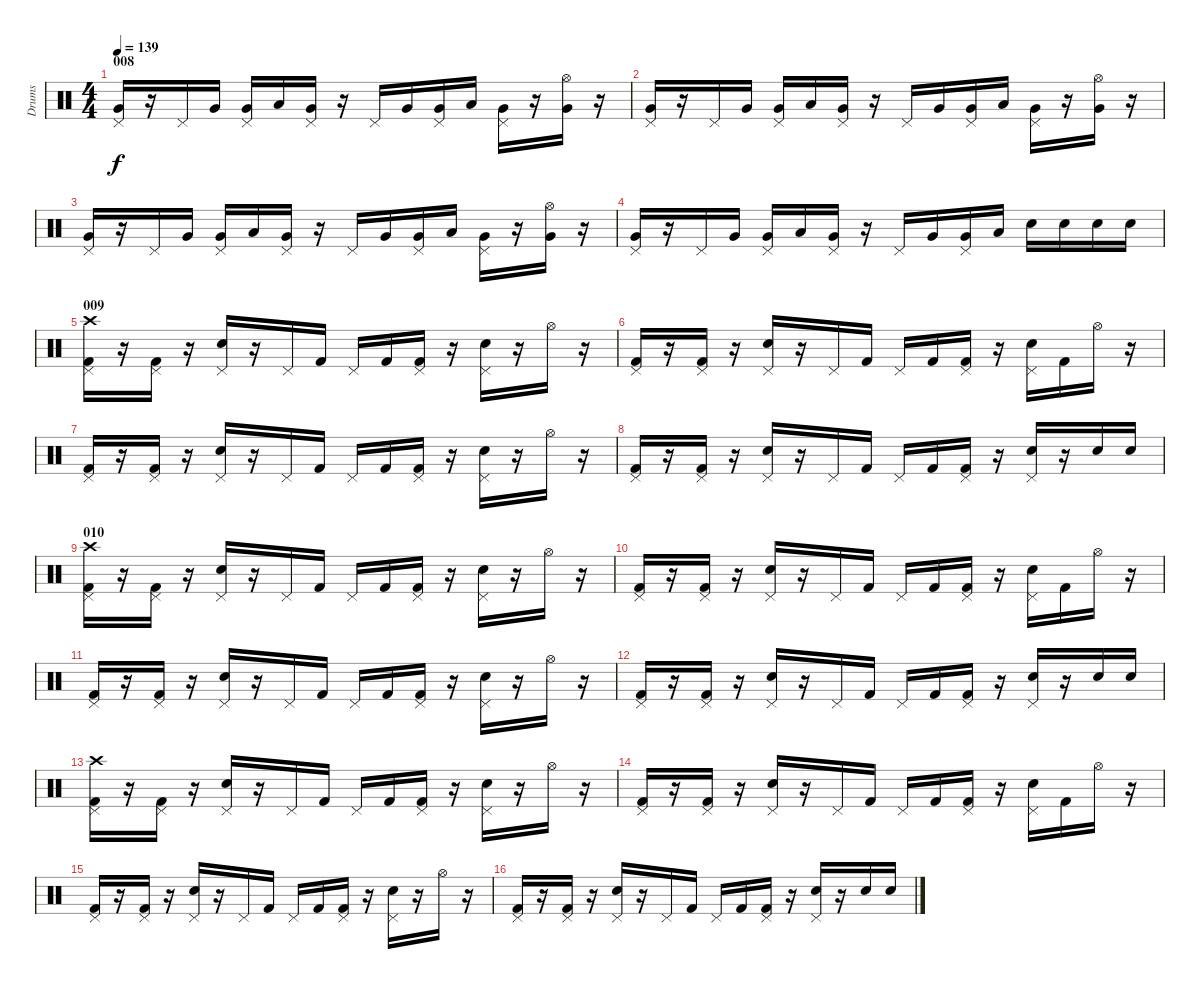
\track ("Drums" "Drums") {instrument percussion}
\staff {score}
\articulation defaults
\ts (4 4)
\section ("" "008")
\tempo 139
\clef neutral
\ks c
("Very Low Tom (hit)" "Pedal Hi-Hat (hit)").16{dy f} r.16 "Pedal Hi-Hat (hit)".16 "Very Low Tom (hit)".16 ("Very Low Tom (hit)" "Pedal Hi-Hat (hit)").16 "Low Floor Tom (hit)".16 ("Very Low Tom (hit)" "Pedal Hi-Hat (hit)").16 r.16 "Pedal Hi-Hat (hit)".16 "Very Low Tom (hit)".16 ("Very Low Tom (hit)" "Pedal Hi-Hat (hit)").16 "Low Floor Tom (hit)".16 ("Very Low Tom (hit)" "Pedal Hi-Hat (hit)").16 r.16 ("Very Low Tom (hit)" "Hi-Hat (open)").16 r.16 |
("Very Low Tom (hit)" "Pedal Hi-Hat (hit)").16 r.16 "Pedal Hi-Hat (hit)".16 "Very Low Tom (hit)".16 ("Very Low Tom (hit)" "Pedal Hi-Hat (hit)").16 "Low Floor Tom (hit)".16 ("Very Low Tom (hit)" "Pedal Hi-Hat (hit)").16 r.16 "Pedal Hi-Hat (hit)".16 "Very Low Tom (hit)".16 ("Very Low Tom (hit)" "Pedal Hi-Hat (hit)").16 "Low Floor Tom (hit)".16 ("Very Low Tom (hit)" "Pedal Hi-Hat (hit)").16 r.16 ("Very Low Tom (hit)" "Hi-Hat (open)").16 r.16 |
("Very Low Tom (hit)" "Pedal Hi-Hat (hit)").16 r.16 "Pedal Hi-Hat (hit)".16 "Very Low Tom (hit)".16 ("Very Low Tom (hit)" "Pedal Hi-Hat (hit)").16 "Low Floor Tom (hit)".16 ("Very Low Tom (hit)" "Pedal Hi-Hat (hit)").16 r.16 "Pedal Hi-Hat (hit)".16 "Very Low Tom (hit)".16 ("Very Low Tom (hit)" "Pedal Hi-Hat (hit)").16 "Low Floor Tom (hit)".16 ("Very Low Tom (hit)" "Pedal Hi-Hat (hit)").16 r.16 ("Very Low Tom (hit)" "Hi-Hat (open)").16 r.16 |
("Very Low Tom (hit)" "Pedal Hi-Hat (hit)").16 r.16 "Pedal Hi-Hat (hit)".16 "Very Low Tom (hit)".16 ("Very Low Tom (hit)" "Pedal Hi-Hat (hit)").16 "Low Floor Tom (hit)".16 ("Very Low Tom (hit)" "Pedal Hi-Hat (hit)").16 r.16 "Pedal Hi-Hat (hit)".16 "Very Low Tom (hit)".16 ("Very Low Tom (hit)" "Pedal Hi-Hat (hit)").16 "Low Floor Tom (hit)".16 "Electric Snare (hit)".16 "Electric Snare (hit)".16 "Electric Snare (hit)".16 "Electric Snare (hit)".16 |
\section ("" "009")
("Kick (hit) 2" "Crash high (hit)" "Pedal Hi-Hat (hit)").16 r.16 ("Kick (hit) 2" "Pedal Hi-Hat (hit)").16 r.16 ("Electric Snare (hit)" "Pedal Hi-Hat (hit)").16 r.16 "Pedal Hi-Hat (hit)".16 "Kick (hit) 2".16 "Pedal Hi-Hat (hit)".16 "Kick (hit) 2".16 ("Kick (hit) 2" "Pedal Hi-Hat (hit)").16 r.16 ("Electric Snare (hit)" "Pedal Hi-Hat (hit)").16 r.16 "Hi-Hat (open)".16 r.16 |
("Kick (hit) 2" "Pedal Hi-Hat (hit)").16 r.16 ("Kick (hit) 2" "Pedal Hi-Hat (hit)").16 r.16 ("Electric Snare (hit)" "Pedal Hi-Hat (hit)").16 r.16 "Pedal Hi-Hat (hit)".16 "Kick (hit) 2".16 "Pedal Hi-Hat (hit)".16 "Kick (hit) 2".16 ("Kick (hit) 2" "Pedal Hi-Hat (hit)").16 r.16 ("Electric Snare (hit)" "Pedal Hi-Hat (hit)").16 "Kick (hit) 2".16 "Hi-Hat (open)".16 r.16 |
("Kick (hit) 2" "Pedal Hi-Hat (hit)").16 r.16 ("Kick (hit) 2" "Pedal Hi-Hat (hit)").16 r.16 ("Electric Snare (hit)" "Pedal Hi-Hat (hit)").16 r.16 "Pedal Hi-Hat (hit)".16 "Kick (hit) 2".16 "Pedal Hi-Hat (hit)".16 "Kick (hit) 2".16 ("Kick (hit) 2" "Pedal Hi-Hat (hit)").16 r.16 ("Electric Snare (hit)" "Pedal Hi-Hat (hit)").16 r.16 "Hi-Hat (open)".16 r.16 |
("Kick (hit) 2" "Pedal Hi-Hat (hit)").16 r.16 ("Kick (hit) 2" "Pedal Hi-Hat (hit)").16 r.16 ("Electric Snare (hit)" "Pedal Hi-Hat (hit)").16 r.16 "Pedal Hi-Hat (hit)".16 "Kick (hit) 2".16 "Pedal Hi-Hat (hit)".16 "Kick (hit) 2".16 ("Kick (hit) 2" "Pedal Hi-Hat (hit)").16 r.16 ("Electric Snare (hit)" "Pedal Hi-Hat (hit)").16 r.16 "Electric Snare (hit)".16 "Electric Snare (hit)".16 |
\section ("" "010")
("Kick (hit) 2" "Crash high (hit)" "Pedal Hi-Hat (hit)").16 r.16 ("Kick (hit) 2" "Pedal Hi-Hat (hit)").16 r.16 ("Electric Snare (hit)" "Pedal Hi-Hat (hit)").16 r.16 "Pedal Hi-Hat (hit)".16 "Kick (hit) 2".16 "Pedal Hi-Hat (hit)".16 "Kick (hit) 2".16 ("Kick (hit) 2" "Pedal Hi-Hat (hit)").16 r.16 ("Electric Snare (hit)" "Pedal Hi-Hat (hit)").16 r.16 "Hi-Hat (open)".16 r.16 |
("Kick (hit) 2" "Pedal Hi-Hat (hit)").16 r.16 ("Kick (hit) 2" "Pedal Hi-Hat (hit)").16 r.16 ("Electric Snare (hit)" "Pedal Hi-Hat (hit)").16 r.16 "Pedal Hi-Hat (hit)".16 "Kick (hit) 2".16 "Pedal Hi-Hat (hit)".16 "Kick (hit) 2".16 ("Kick (hit) 2" "Pedal Hi-Hat (hit)").16 r.16 ("Electric Snare (hit)" "Pedal Hi-Hat (hit)").16 "Kick (hit) 2".16 "Hi-Hat (open)".16 r.16 |
("Kick (hit) 2" "Pedal Hi-Hat (hit)").16 r.16 ("Kick (hit) 2" "Pedal Hi-Hat (hit)").16 r.16 ("Electric Snare (hit)" "Pedal Hi-Hat (hit)").16 r.16 "Pedal Hi-Hat (hit)".16 "Kick (hit) 2".16 "Pedal Hi-Hat (hit)".16 "Kick (hit) 2".16 ("Kick (hit) 2" "Pedal Hi-Hat (hit)").16 r.16 ("Electric Snare (hit)" "Pedal Hi-Hat (hit)").16 r.16 "Hi-Hat (open)".16 r.16 |
("Kick (hit) 2" "Pedal Hi-Hat (hit)").16 r.16 ("Kick (hit) 2" "Pedal Hi-Hat (hit)").16 r.16 ("Electric Snare (hit)" "Pedal Hi-Hat (hit)").16 r.16 "Pedal Hi-Hat (hit)".16 "Kick (hit) 2".16 "Pedal Hi-Hat (hit)".16 "Kick (hit) 2".16 ("Kick (hit) 2" "Pedal Hi-Hat (hit)").16 r.16 ("Electric Snare (hit)" "Pedal Hi-Hat (hit)").16 r.16 "Electric Snare (hit)".16 "Electric Snare (hit)".16 |
("Kick (hit) 2" "Crash high (hit)" "Pedal Hi-Hat (hit)").16 r.16 ("Kick (hit) 2" "Pedal Hi-Hat (hit)").16 r.16 ("Electric Snare (hit)" "Pedal Hi-Hat (hit)").16 r.16 "Pedal Hi-Hat (hit)".16 "Kick (hit) 2".16 "Pedal Hi-Hat (hit)".16 "Kick (hit) 2".16 ("Kick (hit) 2" "Pedal Hi-Hat (hit)").16 r.16 ("Electric Snare (hit)" "Pedal Hi-Hat (hit)").16 r.16 "Hi-Hat (open)".16 r.16 |
("Kick (hit) 2" "Pedal Hi-Hat (hit)").16 r.16 ("Kick (hit) 2" "Pedal Hi-Hat (hit)").16 r.16 ("Electric Snare (hit)" "Pedal Hi-Hat (hit)").16 r.16 "Pedal Hi-Hat (hit)".16 "Kick (hit) 2".16 "Pedal Hi-Hat (hit)".16 "Kick (hit) 2".16 ("Kick (hit) 2" "Pedal Hi-Hat (hit)").16 r.16 ("Electric Snare (hit)" "Pedal Hi-Hat (hit)").16 "Kick (hit) 2".16 "Hi-Hat (open)".16 r.16 |
("Kick (hit) 2" "Pedal Hi-Hat (hit)").16 r.16 ("Kick (hit) 2" "Pedal Hi-Hat (hit)").16 r.16 ("Electric Snare (hit)" "Pedal Hi-Hat (hit)").16 r.16 "Pedal Hi-Hat (hit)".16 "Kick (hit) 2".16 "Pedal Hi-Hat (hit)".16 "Kick (hit) 2".16 ("Kick (hit) 2" "Pedal Hi-Hat (hit)").16 r.16 ("Electric Snare (hit)" "Pedal Hi-Hat (hit)").16 r.16 "Hi-Hat (open)".16 r.16 |
("Kick (hit) 2" "Pedal Hi-Hat (hit)").16 r.16 ("Kick (hit) 2" "Pedal Hi-Hat (hit)").16 r.16 ("Electric Snare (hit)" "Pedal Hi-Hat (hit)").16 r.16 "Pedal Hi-Hat (hit)".16 "Kick (hit) 2".16 "Pedal Hi-Hat (hit)".16 "Kick (hit) 2".16 ("Kick (hit) 2" "Pedal Hi-Hat (hit)").16 r.16 ("Electric Snare (hit)" "Pedal Hi-Hat (hit)").16 r.16 "Electric Snare (hit)".16 "Electric Snare (hit)".16
